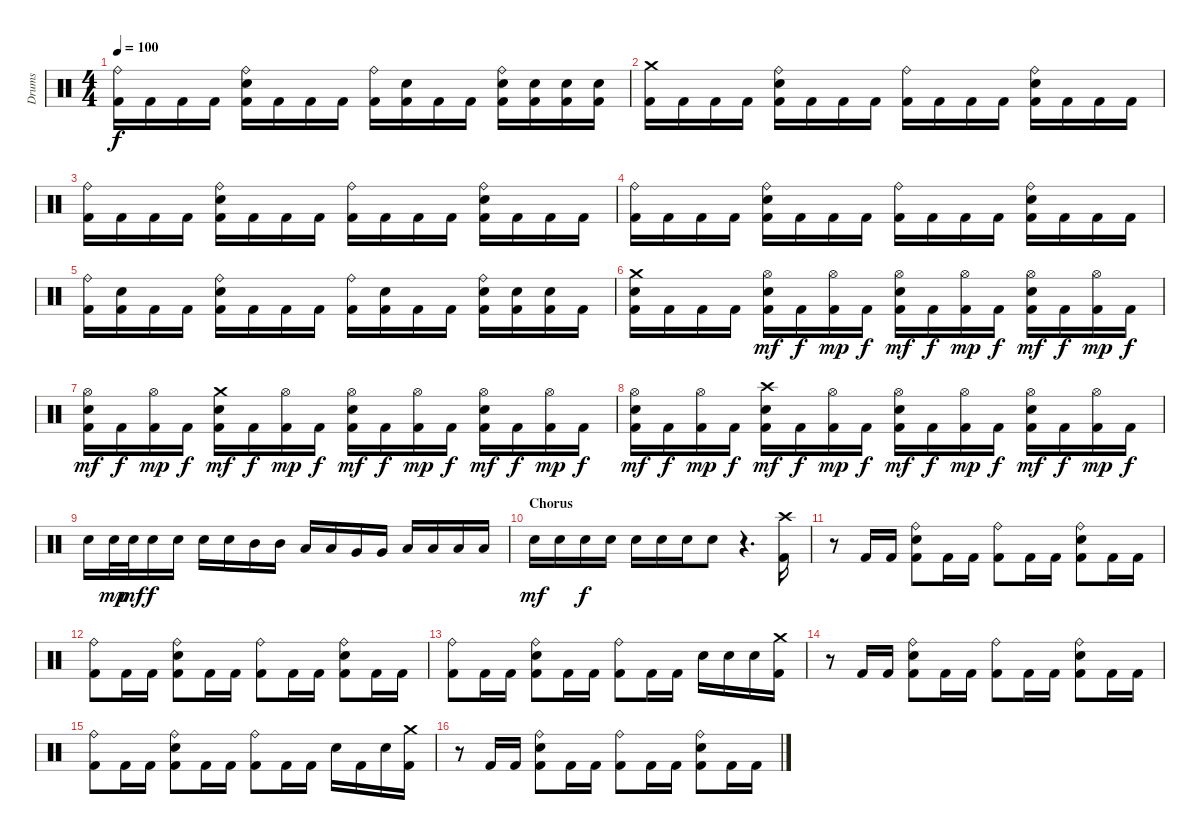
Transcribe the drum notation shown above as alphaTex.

\track ("Drums" "Drums") {instrument percussion}
\staff {score}
\articulation defaults
\ts (4 4)
\tempo 100
\clef neutral
\ks c
("Ride (bell)" "Kick (hit) 2").16{dy f} "Kick (hit) 2".16 "Kick (hit) 2".16 "Kick (hit) 2".16 ("Ride (bell)" "Electric Snare (hit)" "Kick (hit) 2").16 "Kick (hit) 2".16 "Kick (hit) 2".16 "Kick (hit) 2".16 ("Ride (bell)" "Kick (hit) 2").16 ("Electric Snare (hit)" "Kick (hit) 2").16 "Kick (hit) 2".16 "Kick (hit) 2".16 ("Ride (bell)" "Electric Snare (hit)" "Kick (hit) 2").16 ("Electric Snare (hit)" "Kick (hit) 2").16 ("Electric Snare (hit)" "Kick (hit) 2").16 ("Electric Snare (hit)" "Kick (hit) 2").16 |
("Crash medium (hit)" "Kick (hit) 2").16 "Kick (hit) 2".16 "Kick (hit) 2".16 "Kick (hit) 2".16 ("Ride (bell)" "Electric Snare (hit)" "Kick (hit) 2").16 "Kick (hit) 2".16 "Kick (hit) 2".16 "Kick (hit) 2".16 ("Ride (bell)" "Kick (hit) 2").16 "Kick (hit) 2".16 "Kick (hit) 2".16 "Kick (hit) 2".16 ("Ride (bell)" "Electric Snare (hit)" "Kick (hit) 2").16 "Kick (hit) 2".16 "Kick (hit) 2".16 "Kick (hit) 2".16 |
("Ride (bell)" "Kick (hit) 2").16 "Kick (hit) 2".16 "Kick (hit) 2".16 "Kick (hit) 2".16 ("Ride (bell)" "Electric Snare (hit)" "Kick (hit) 2").16 "Kick (hit) 2".16 "Kick (hit) 2".16 "Kick (hit) 2".16 ("Ride (bell)" "Kick (hit) 2").16 "Kick (hit) 2".16 "Kick (hit) 2".16 "Kick (hit) 2".16 ("Ride (bell)" "Electric Snare (hit)" "Kick (hit) 2").16 "Kick (hit) 2".16 "Kick (hit) 2".16 "Kick (hit) 2".16 |
("Ride (bell)" "Kick (hit) 2").16 "Kick (hit) 2".16 "Kick (hit) 2".16 "Kick (hit) 2".16 ("Ride (bell)" "Electric Snare (hit)" "Kick (hit) 2").16 "Kick (hit) 2".16 "Kick (hit) 2".16 "Kick (hit) 2".16 ("Ride (bell)" "Kick (hit) 2").16 "Kick (hit) 2".16 "Kick (hit) 2".16 "Kick (hit) 2".16 ("Ride (bell)" "Electric Snare (hit)" "Kick (hit) 2").16 "Kick (hit) 2".16 "Kick (hit) 2".16 "Kick (hit) 2".16 |
("Ride (bell)" "Kick (hit) 2").16 ("Electric Snare (hit)" "Kick (hit) 2").16 "Kick (hit) 2".16 "Kick (hit) 2".16 ("Ride (bell)" "Electric Snare (hit)" "Kick (hit) 2").16 "Kick (hit) 2".16 "Kick (hit) 2".16 "Kick (hit) 2".16 ("Ride (bell)" "Kick (hit) 2").16 ("Electric Snare (hit)" "Kick (hit) 2").16 "Kick (hit) 2".16 "Kick (hit) 2".16 ("Ride (bell)" "Electric Snare (hit)" "Kick (hit) 2").16 ("Electric Snare (hit)" "Kick (hit) 2").16 ("Electric Snare (hit)" "Kick (hit) 2").16 "Kick (hit) 2".16 |
("Crash medium (hit)" "Electric Snare (hit)" "Kick (hit) 2").16 "Kick (hit) 2".16 "Kick (hit) 2".16 "Kick (hit) 2".16 ("Hi-Hat (open)" "Electric Snare (hit)" "Kick (hit) 2").16{dy mf} "Kick (hit) 2".16{dy f} ("Hi-Hat (open)" "Kick (hit) 2").16{dy mp} "Kick (hit) 2".16{dy f} ("Hi-Hat (open)" "Electric Snare (hit)" "Kick (hit) 2").16{dy mf} "Kick (hit) 2".16{dy f} ("Hi-Hat (open)" "Kick (hit) 2").16{dy mp} "Kick (hit) 2".16{dy f} ("Hi-Hat (open)" "Electric Snare (hit)" "Kick (hit) 2").16{dy mf} "Kick (hit) 2".16{dy f} ("Hi-Hat (open)" "Kick (hit) 2").16{dy mp} "Kick (hit) 2".16{dy f} |
("Hi-Hat (open)" "Electric Snare (hit)" "Kick (hit) 2").16{dy mf} "Kick (hit) 2".16{dy f} ("Hi-Hat (open)" "Kick (hit) 2").16{dy mp} "Kick (hit) 2".16{dy f} ("Crash medium (hit)" "Electric Snare (hit)" "Kick (hit) 2").16{dy mf} "Kick (hit) 2".16{dy f} ("Hi-Hat (open)" "Kick (hit) 2").16{dy mp} "Kick (hit) 2".16{dy f} ("Hi-Hat (open)" "Electric Snare (hit)" "Kick (hit) 2").16{dy mf} "Kick (hit) 2".16{dy f} ("Hi-Hat (open)" "Kick (hit) 2").16{dy mp} "Kick (hit) 2".16{dy f} ("Hi-Hat (open)" "Electric Snare (hit)" "Kick (hit) 2").16{dy mf} "Kick (hit) 2".16{dy f} ("Hi-Hat (open)" "Kick (hit) 2").16{dy mp} "Kick (hit) 2".16{dy f} |
("Hi-Hat (open)" "Electric Snare (hit)" "Kick (hit) 2").16{dy mf} "Kick (hit) 2".16{dy f} ("Hi-Hat (open)" "Kick (hit) 2").16{dy mp} "Kick (hit) 2".16{dy f} ("Crash high (hit)" "Electric Snare (hit)" "Kick (hit) 2").16{dy mf} "Kick (hit) 2".16{dy f} ("Hi-Hat (open)" "Kick (hit) 2").16{dy mp} "Kick (hit) 2".16{dy f} ("Hi-Hat (open)" "Electric Snare (hit)" "Kick (hit) 2").16{dy mf} "Kick (hit) 2".16{dy f} ("Hi-Hat (open)" "Kick (hit) 2").16{dy mp} "Kick (hit) 2".16{dy f} ("Hi-Hat (open)" "Electric Snare (hit)" "Kick (hit) 2").16{dy mf} "Kick (hit) 2".16{dy f} ("Hi-Hat (open)" "Kick (hit) 2").16{dy mp} "Kick (hit) 2".16{dy f} |
"Electric Snare (hit)".16 "Electric Snare (hit)".32{dy mp} "Electric Snare (hit)".32{dy mf} "Electric Snare (hit)".16{dy f} "Electric Snare (hit)".16 "Electric Snare (hit)".16 "Electric Snare (hit)".16 "Mid Tom (hit)".16 "Mid Tom (hit)".16 "Low Tom (hit)".16 "Low Tom (hit)".16 "Very Low Tom (hit)".16 "Very Low Tom (hit)".16 "Low Floor Tom (hit)".16 "Low Floor Tom (hit)".16 "Low Floor Tom (hit)".16 "Low Floor Tom (hit)".16 |
\section ("" "Chorus")
"Electric Snare (hit)".16{dy mf} "Electric Snare (hit)".16 "Electric Snare (hit)".16{dy f} "Electric Snare (hit)".16 "Electric Snare (hit)".16 "Electric Snare (hit)".16 "Electric Snare (hit)".16 "Electric Snare (hit)".8 r.4{d} ("Crash high (hit)" "Kick (hit) 2").16 |
r.8 "Kick (hit) 2".16 "Kick (hit) 2".16 ("Ride (bell)" "Electric Snare (hit)" "Kick (hit) 2").8 "Kick (hit) 2".16 "Kick (hit) 2".16 ("Ride (bell)" "Kick (hit) 2").8 "Kick (hit) 2".16 "Kick (hit) 2".16 ("Ride (bell)" "Electric Snare (hit)" "Kick (hit) 2").8 "Kick (hit) 2".16 "Kick (hit) 2".16 |
("Ride (bell)" "Kick (hit) 2").8 "Kick (hit) 2".16 "Kick (hit) 2".16 ("Ride (bell)" "Electric Snare (hit)" "Kick (hit) 2").8 "Kick (hit) 2".16 "Kick (hit) 2".16 ("Ride (bell)" "Kick (hit) 2").8 "Kick (hit) 2".16 "Kick (hit) 2".16 ("Ride (bell)" "Electric Snare (hit)" "Kick (hit) 2").8 "Kick (hit) 2".16 "Kick (hit) 2".16 |
("Ride (bell)" "Kick (hit) 2").8 "Kick (hit) 2".16 "Kick (hit) 2".16 ("Ride (bell)" "Electric Snare (hit)" "Kick (hit) 2").8 "Kick (hit) 2".16 "Kick (hit) 2".16 ("Ride (bell)" "Kick (hit) 2").8 "Kick (hit) 2".16 "Kick (hit) 2".16 "Electric Snare (hit)".16 "Electric Snare (hit)".16 "Electric Snare (hit)".16 ("Crash medium (hit)" "Kick (hit) 2").16 |
r.8 "Kick (hit) 2".16 "Kick (hit) 2".16 ("Ride (bell)" "Electric Snare (hit)" "Kick (hit) 2").8 "Kick (hit) 2".16 "Kick (hit) 2".16 ("Ride (bell)" "Kick (hit) 2").8 "Kick (hit) 2".16 "Kick (hit) 2".16 ("Ride (bell)" "Electric Snare (hit)" "Kick (hit) 2").8 "Kick (hit) 2".16 "Kick (hit) 2".16 |
("Ride (bell)" "Kick (hit) 2").8 "Kick (hit) 2".16 "Kick (hit) 2".16 ("Ride (bell)" "Electric Snare (hit)" "Kick (hit) 2").8 "Kick (hit) 2".16 "Kick (hit) 2".16 ("Ride (bell)" "Kick (hit) 2").8 "Kick (hit) 2".16 "Kick (hit) 2".16 "Electric Snare (hit)".16 "Kick (hit) 2".16 "Electric Snare (hit)".16 ("Crash medium (hit)" "Kick (hit) 2").16 |
r.8 "Kick (hit) 2".16 "Kick (hit) 2".16 ("Ride (bell)" "Electric Snare (hit)" "Kick (hit) 2").8 "Kick (hit) 2".16 "Kick (hit) 2".16 ("Ride (bell)" "Kick (hit) 2").8 "Kick (hit) 2".16 "Kick (hit) 2".16 ("Ride (bell)" "Electric Snare (hit)" "Kick (hit) 2").8 "Kick (hit) 2".16 "Kick (hit) 2".16
